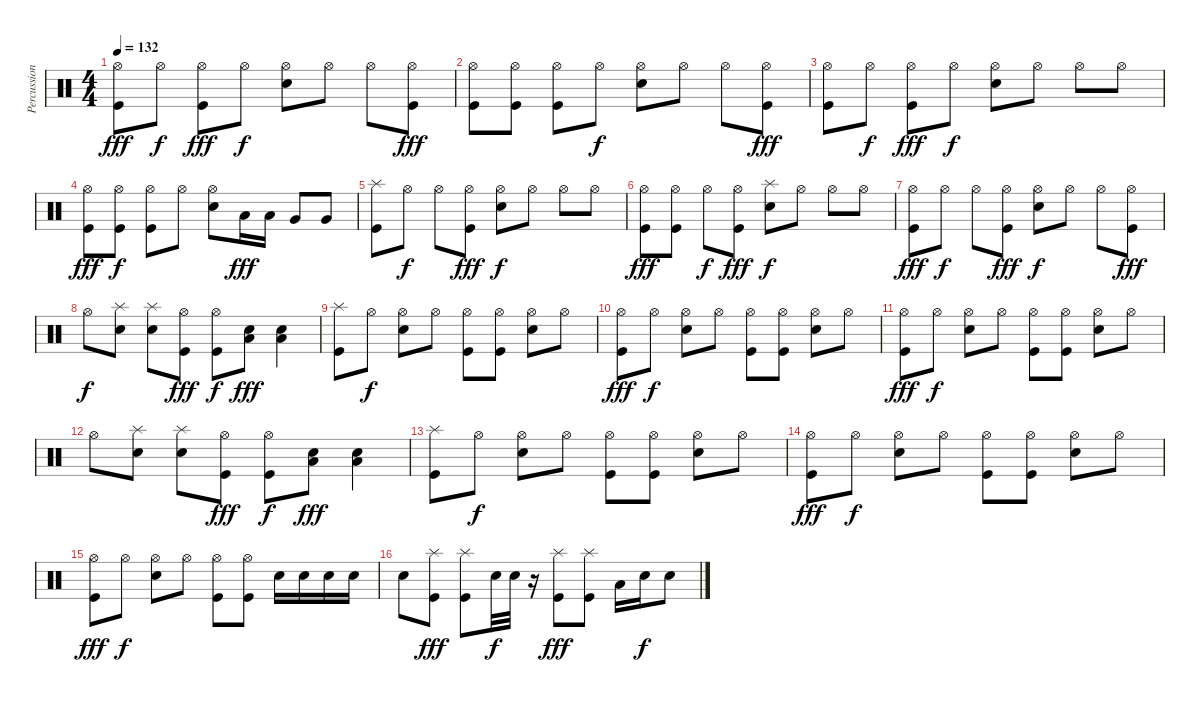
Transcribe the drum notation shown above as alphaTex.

\track ("Percussion" "Percussion") {instrument percussion}
\staff {score}
\articulation defaults
\ts (4 4)
\tempo 132
\clef neutral
\ks c
("Hi-Hat (open)" "Kick (hit)").8{dy fff} "Hi-Hat (open)".8{dy f} ("Hi-Hat (open)" "Kick (hit)").8{dy fff} "Hi-Hat (open)".8{dy f} ("Hi-Hat (open)" "Snare (hit) 2").8 "Hi-Hat (open)".8 "Hi-Hat (open)".8 ("Hi-Hat (open)" "Kick (hit)").8{dy fff} |
("Hi-Hat (open)" "Kick (hit)").8 ("Hi-Hat (open)" "Kick (hit)").8 ("Hi-Hat (open)" "Kick (hit)").8 "Hi-Hat (open)".8{dy f} ("Hi-Hat (open)" "Snare (hit) 2").8 "Hi-Hat (open)".8 "Hi-Hat (open)".8 ("Hi-Hat (open)" "Kick (hit)").8{dy fff} |
("Hi-Hat (open)" "Kick (hit)").8 "Hi-Hat (open)".8{dy f} ("Hi-Hat (open)" "Kick (hit)").8{dy fff} "Hi-Hat (open)".8{dy f} ("Hi-Hat (open)" "Snare (hit) 2").8 "Hi-Hat (open)".8 "Hi-Hat (open)".8 "Hi-Hat (open)".8 |
("Hi-Hat (open)" "Kick (hit)").8{dy fff} ("Hi-Hat (open)" "Kick (hit)").8{dy f} ("Hi-Hat (open)" "Kick (hit)").8 "Hi-Hat (open)".8 ("Hi-Hat (open)" "Snare (hit) 2").8 "Low Tom (hit)".16{dy fff} "Low Tom (hit)".16 "Very Low Tom (hit)".8 "Very Low Tom (hit)".8 |
("Splash (hit)" "Kick (hit)").8 "Hi-Hat (open)".8{dy f} "Hi-Hat (open)".8 ("Hi-Hat (open)" "Kick (hit)").8{dy fff} ("Hi-Hat (open)" "Snare (hit) 2").8{dy f} "Hi-Hat (open)".8 "Hi-Hat (open)".8 "Hi-Hat (open)".8 |
("Hi-Hat (open)" "Kick (hit)").8{dy fff} ("Hi-Hat (open)" "Kick (hit)").8 "Hi-Hat (open)".8{dy f} ("Hi-Hat (open)" "Kick (hit)").8{dy fff} ("Splash (hit)" "Snare (hit) 2").8{dy f} "Hi-Hat (open)".8 "Hi-Hat (open)".8 "Hi-Hat (open)".8 |
("Hi-Hat (open)" "Kick (hit)").8{dy fff} "Hi-Hat (open)".8{dy f} "Hi-Hat (open)".8 ("Hi-Hat (open)" "Kick (hit)").8{dy fff} ("Hi-Hat (open)" "Snare (hit) 2").8{dy f} "Hi-Hat (open)".8 "Hi-Hat (open)".8 ("Hi-Hat (open)" "Kick (hit)").8{dy fff} |
"Hi-Hat (open)".8{dy f} ("Splash (hit)" "Snare (hit) 2").8 ("Splash (hit)" "Snare (hit) 2").8 ("Hi-Hat (open)" "Kick (hit)").8{dy fff} ("Hi-Hat (open)" "Kick (hit)").8{dy f} ("Low Tom (hit)" "Snare (hit) 2").8{dy fff} ("Low Tom (hit)" "Snare (hit) 2").4 |
("Splash (hit)" "Kick (hit)").8 "Hi-Hat (open)".8{dy f} ("Hi-Hat (open)" "Snare (hit) 2").8 "Hi-Hat (open)".8 ("Hi-Hat (open)" "Kick (hit)").8 ("Hi-Hat (open)" "Kick (hit)").8 ("Hi-Hat (open)" "Snare (hit) 2").8 "Hi-Hat (open)".8 |
("Hi-Hat (open)" "Kick (hit)").8{dy fff} "Hi-Hat (open)".8{dy f} ("Hi-Hat (open)" "Snare (hit) 2").8 "Hi-Hat (open)".8 ("Hi-Hat (open)" "Kick (hit)").8 ("Hi-Hat (open)" "Kick (hit)").8 ("Hi-Hat (open)" "Snare (hit) 2").8 "Hi-Hat (open)".8 |
("Hi-Hat (open)" "Kick (hit)").8{dy fff} "Hi-Hat (open)".8{dy f} ("Hi-Hat (open)" "Snare (hit) 2").8 "Hi-Hat (open)".8 ("Hi-Hat (open)" "Kick (hit)").8 ("Hi-Hat (open)" "Kick (hit)").8 ("Hi-Hat (open)" "Snare (hit) 2").8 "Hi-Hat (open)".8 |
"Hi-Hat (open)".8 ("Splash (hit)" "Snare (hit) 2").8 ("Splash (hit)" "Snare (hit) 2").8 ("Hi-Hat (open)" "Kick (hit)").8{dy fff} ("Hi-Hat (open)" "Kick (hit)").8{dy f} ("Low Tom (hit)" "Snare (hit) 2").8{dy fff} ("Low Tom (hit)" "Snare (hit) 2").4 |
("Splash (hit)" "Kick (hit)").8 "Hi-Hat (open)".8{dy f} ("Hi-Hat (open)" "Snare (hit) 2").8 "Hi-Hat (open)".8 ("Hi-Hat (open)" "Kick (hit)").8 ("Hi-Hat (open)" "Kick (hit)").8 ("Hi-Hat (open)" "Snare (hit) 2").8 "Hi-Hat (open)".8 |
("Hi-Hat (open)" "Kick (hit)").8{dy fff} "Hi-Hat (open)".8{dy f} ("Hi-Hat (open)" "Snare (hit) 2").8 "Hi-Hat (open)".8 ("Hi-Hat (open)" "Kick (hit)").8 ("Hi-Hat (open)" "Kick (hit)").8 ("Hi-Hat (open)" "Snare (hit) 2").8 "Hi-Hat (open)".8 |
("Hi-Hat (open)" "Kick (hit)").8{dy fff} "Hi-Hat (open)".8{dy f} ("Hi-Hat (open)" "Snare (hit) 2").8 "Hi-Hat (open)".8 ("Hi-Hat (open)" "Kick (hit)").8 ("Hi-Hat (open)" "Kick (hit)").8 "Snare (hit) 2".16 "Snare (hit) 2".16 "Snare (hit) 2".16 "Snare (hit) 2".16 |
"Snare (hit) 2".8 ("Splash (hit)" "Kick (hit)").8{dy fff} ("Splash (hit)" "Kick (hit)").8 "Snare (hit) 2".32{dy f} "Snare (hit) 2".32 r.16 ("Splash (hit)" "Kick (hit)").8{dy fff} ("Splash (hit)" "Kick (hit)").8 "Low Tom (hit)".16 "Snare (hit) 2".16{dy f} "Snare (hit) 2".8
